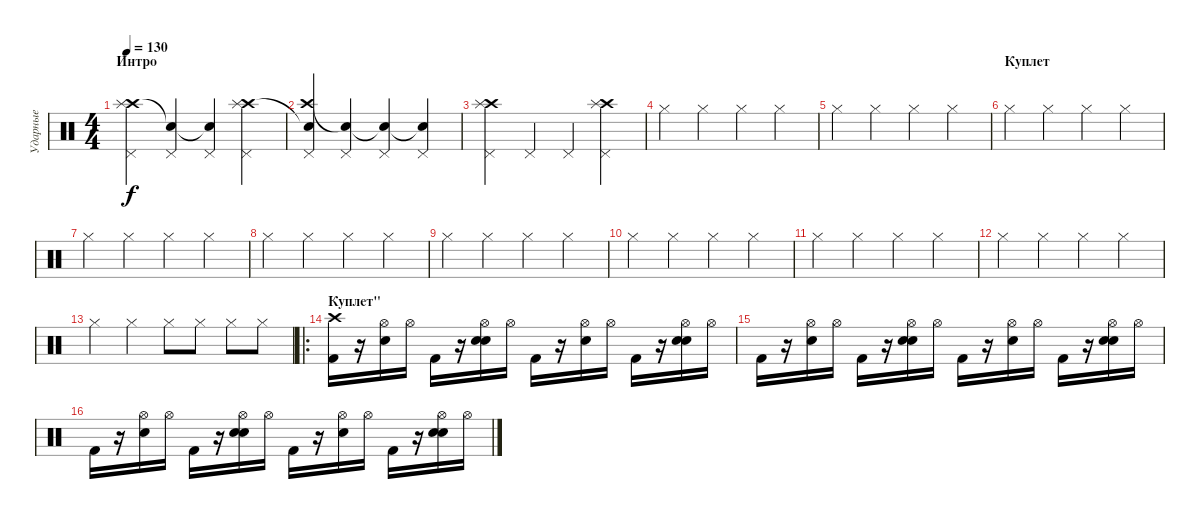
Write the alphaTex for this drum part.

\track ("Ударные" "Ударные") {instrument percussion}
\staff {score}
\articulation defaults
\ts (4 4)
\section ("" "Интро")
\tempo 130
\clef neutral
\ks c
("Pedal Hi-Hat (hit)" "Crash high (hit)" "Splash (hit)").4{dy f} ("Pedal Hi-Hat (hit)" "Snare (hit)"{t}).4 ("Pedal Hi-Hat (hit)" "Snare (hit)"{t}).4 ("Pedal Hi-Hat (hit)" "Crash high (hit)" "Splash (hit)").4 |
("Pedal Hi-Hat (hit)" "Crash high (hit)" "Snare (hit)"{t}).4 ("Pedal Hi-Hat (hit)" "Snare (hit)"{t}).4 ("Pedal Hi-Hat (hit)" "Snare (hit)"{t}).4 ("Pedal Hi-Hat (hit)" "Snare (hit)"{t}).4 |
("Pedal Hi-Hat (hit)" "Crash high (hit)" "Splash (hit)").4 "Pedal Hi-Hat (hit)".4 "Pedal Hi-Hat (hit)".4 ("Pedal Hi-Hat (hit)" "Crash high (hit)" "Splash (hit)").4 |
"Hi-Hat (closed)".4 "Hi-Hat (closed)".4 "Hi-Hat (closed)".4 "Hi-Hat (closed)".4 |
"Hi-Hat (closed)".4 "Hi-Hat (closed)".4 "Hi-Hat (closed)".4 "Hi-Hat (closed)".4 |
\section ("" "Куплет")
"Hi-Hat (closed)".4 "Hi-Hat (closed)".4 "Hi-Hat (closed)".4 "Hi-Hat (closed)".4 |
"Hi-Hat (closed)".4 "Hi-Hat (closed)".4 "Hi-Hat (closed)".4 "Hi-Hat (closed)".4 |
"Hi-Hat (closed)".4 "Hi-Hat (closed)".4 "Hi-Hat (closed)".4 "Hi-Hat (closed)".4 |
"Hi-Hat (closed)".4 "Hi-Hat (closed)".4 "Hi-Hat (closed)".4 "Hi-Hat (closed)".4 |
"Hi-Hat (closed)".4 "Hi-Hat (closed)".4 "Hi-Hat (closed)".4 "Hi-Hat (closed)".4 |
"Hi-Hat (closed)".4 "Hi-Hat (closed)".4 "Hi-Hat (closed)".4 "Hi-Hat (closed)".4 |
"Hi-Hat (closed)".4 "Hi-Hat (closed)".4 "Hi-Hat (closed)".4 "Hi-Hat (closed)".4 |
"Hi-Hat (closed)".4 "Hi-Hat (closed)".4 "Hi-Hat (closed)".8 "Hi-Hat (closed)".8 "Hi-Hat (closed)".8 "Hi-Hat (closed)".8 |
\ro
\section ("" "Куплет\"")
("Crash high (hit)" "Kick (hit) 2").16 r.16 ("Hi-Hat (open)" "Snare (hit) 2").16 "Hi-Hat (open)".16 "Kick (hit) 2".16 r.16 ("Hi-Hat (open)" "Electric Snare (hit)" "Snare (hit) 2").16 "Hi-Hat (open)".16 "Kick (hit) 2".16 r.16 ("Hi-Hat (open)" "Snare (hit) 2").16 "Hi-Hat (open)".16 "Kick (hit) 2".16 r.16 ("Hi-Hat (open)" "Electric Snare (hit)" "Snare (hit) 2").16 "Hi-Hat (open)".16 |
"Kick (hit) 2".16 r.16 ("Hi-Hat (open)" "Snare (hit) 2").16 "Hi-Hat (open)".16 "Kick (hit) 2".16 r.16 ("Hi-Hat (open)" "Electric Snare (hit)" "Snare (hit) 2").16 "Hi-Hat (open)".16 "Kick (hit) 2".16 r.16 ("Hi-Hat (open)" "Snare (hit) 2").16 "Hi-Hat (open)".16 "Kick (hit) 2".16 r.16 ("Hi-Hat (open)" "Electric Snare (hit)" "Snare (hit) 2").16 "Hi-Hat (open)".16 |
"Kick (hit) 2".16 r.16 ("Hi-Hat (open)" "Snare (hit) 2").16 "Hi-Hat (open)".16 "Kick (hit) 2".16 r.16 ("Hi-Hat (open)" "Electric Snare (hit)" "Snare (hit) 2").16 "Hi-Hat (open)".16 "Kick (hit) 2".16 r.16 ("Hi-Hat (open)" "Snare (hit) 2").16 "Hi-Hat (open)".16 "Kick (hit) 2".16 r.16 ("Hi-Hat (open)" "Electric Snare (hit)" "Snare (hit) 2").16 "Hi-Hat (open)".16
